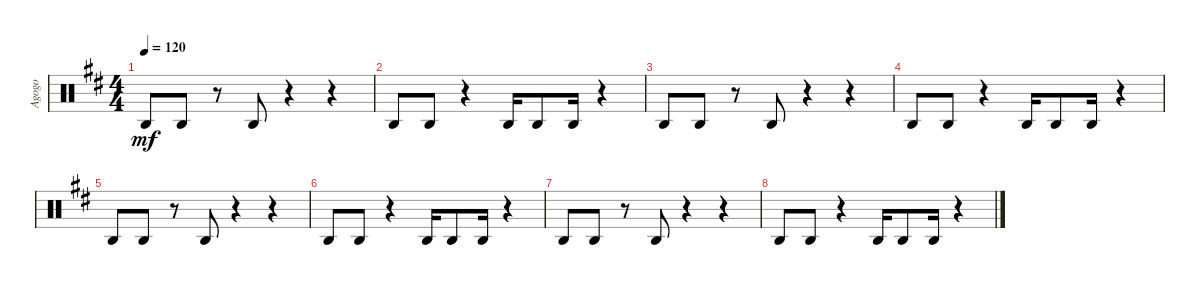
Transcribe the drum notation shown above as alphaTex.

\track ("Agogo" "Agogo") {instrument percussion}
\staff {score}
\articulation defaults
\ts (4 4)
\tempo 120
\clef neutral
\ks d "Agogo high (hit)".8{dy mf} "Agogo high (hit)".8
r.8 "Agogo high (hit)".8 r.4 r.4 |
"Agogo high (hit)".8 "Agogo high (hit)".8 r.4 "Agogo high (hit)".16 "Agogo high (hit)".8 "Agogo high (hit)".16 r.4 |
"Agogo high (hit)".8 "Agogo high (hit)".8 r.8 "Agogo high (hit)".8 r.4 r.4 |
"Agogo high (hit)".8 "Agogo high (hit)".8 r.4 "Agogo high (hit)".16 "Agogo high (hit)".8 "Agogo high (hit)".16 r.4 |
"Agogo high (hit)".8 "Agogo high (hit)".8 r.8 "Agogo high (hit)".8 r.4 r.4 |
"Agogo high (hit)".8 "Agogo high (hit)".8 r.4 "Agogo high (hit)".16 "Agogo high (hit)".8 "Agogo high (hit)".16 r.4 |
"Agogo high (hit)".8 "Agogo high (hit)".8 r.8 "Agogo high (hit)".8 r.4 r.4 |
"Agogo high (hit)".8 "Agogo high (hit)".8 r.4 "Agogo high (hit)".16 "Agogo high (hit)".8 "Agogo high (hit)".16 r.4
